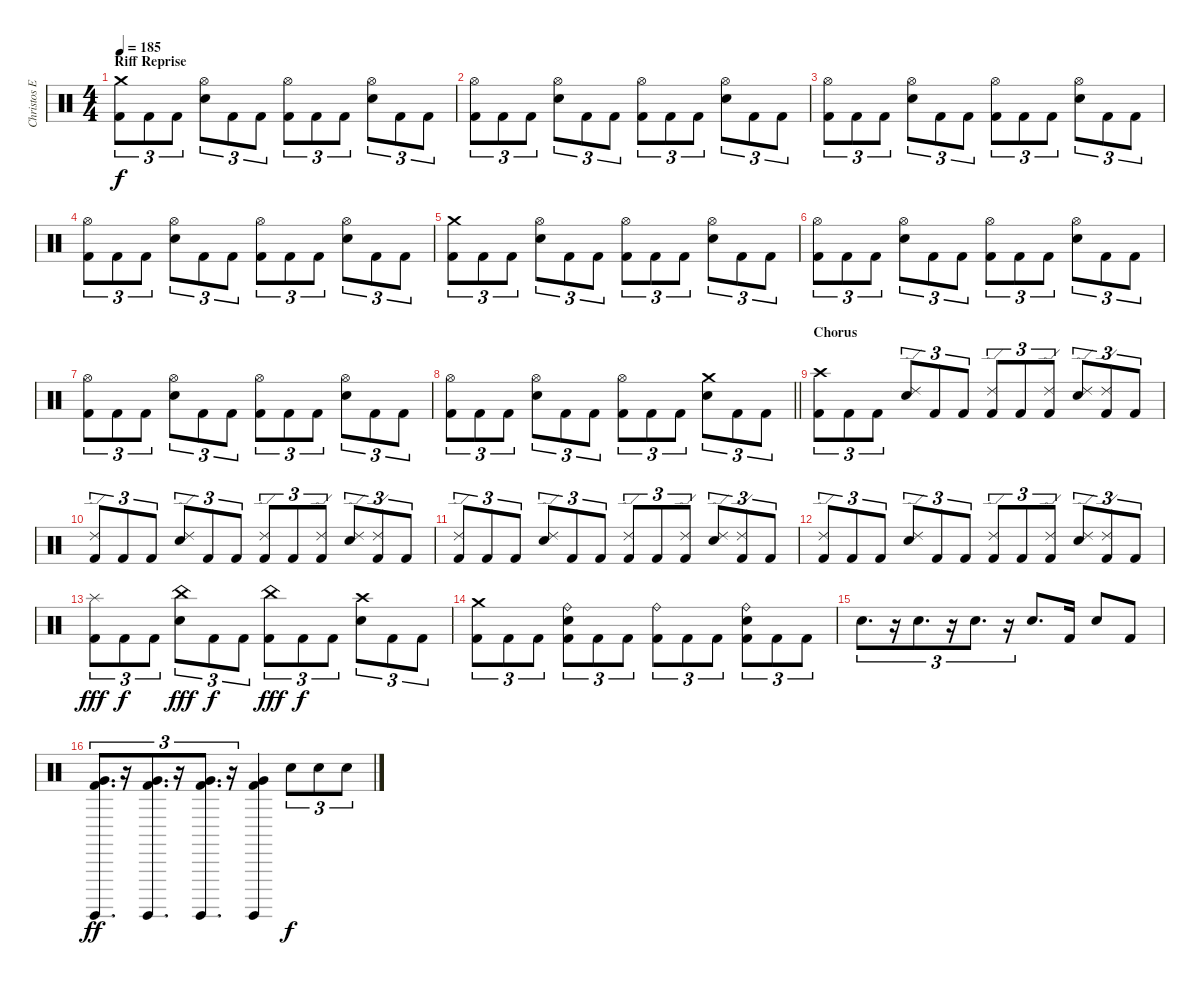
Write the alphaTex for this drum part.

\track ("Christos Ephitimiadis (drums)" "Christos E") {instrument percussion}
\staff {score}
\articulation defaults
\ts (4 4)
\section ("" "Riff Reprise")
\tempo 185
\clef neutral
\ks c
("Crash medium (hit)" "Kick (hit) 2").8{tu (3 2) dy f} "Kick (hit) 2".8{tu (3 2)} "Kick (hit) 2".8{tu (3 2)} ("Hi-Hat (open)" "Snare (hit) 2").8{tu (3 2)} "Kick (hit) 2".8{tu (3 2)} "Kick (hit) 2".8{tu (3 2)} ("Hi-Hat (open)" "Kick (hit) 2").8{tu (3 2)} "Kick (hit) 2".8{tu (3 2)} "Kick (hit) 2".8{tu (3 2)} ("Hi-Hat (open)" "Snare (hit) 2").8{tu (3 2)} "Kick (hit) 2".8{tu (3 2)} "Kick (hit) 2".8{tu (3 2)} |
("Hi-Hat (open)" "Kick (hit) 2").8{tu (3 2)} "Kick (hit) 2".8{tu (3 2)} "Kick (hit) 2".8{tu (3 2)} ("Hi-Hat (open)" "Snare (hit) 2").8{tu (3 2)} "Kick (hit) 2".8{tu (3 2)} "Kick (hit) 2".8{tu (3 2)} ("Hi-Hat (open)" "Kick (hit) 2").8{tu (3 2)} "Kick (hit) 2".8{tu (3 2)} "Kick (hit) 2".8{tu (3 2)} ("Hi-Hat (open)" "Snare (hit) 2").8{tu (3 2)} "Kick (hit) 2".8{tu (3 2)} "Kick (hit) 2".8{tu (3 2)} |
("Hi-Hat (open)" "Kick (hit) 2").8{tu (3 2)} "Kick (hit) 2".8{tu (3 2)} "Kick (hit) 2".8{tu (3 2)} ("Hi-Hat (open)" "Snare (hit) 2").8{tu (3 2)} "Kick (hit) 2".8{tu (3 2)} "Kick (hit) 2".8{tu (3 2)} ("Hi-Hat (open)" "Kick (hit) 2").8{tu (3 2)} "Kick (hit) 2".8{tu (3 2)} "Kick (hit) 2".8{tu (3 2)} ("Hi-Hat (open)" "Snare (hit) 2").8{tu (3 2)} "Kick (hit) 2".8{tu (3 2)} "Kick (hit) 2".8{tu (3 2)} |
("Hi-Hat (open)" "Kick (hit) 2").8{tu (3 2)} "Kick (hit) 2".8{tu (3 2)} "Kick (hit) 2".8{tu (3 2)} ("Hi-Hat (open)" "Snare (hit) 2").8{tu (3 2)} "Kick (hit) 2".8{tu (3 2)} "Kick (hit) 2".8{tu (3 2)} ("Hi-Hat (open)" "Kick (hit) 2").8{tu (3 2)} "Kick (hit) 2".8{tu (3 2)} "Kick (hit) 2".8{tu (3 2)} ("Hi-Hat (open)" "Snare (hit) 2").8{tu (3 2)} "Kick (hit) 2".8{tu (3 2)} "Kick (hit) 2".8{tu (3 2)} |
("Crash medium (hit)" "Kick (hit) 2").8{tu (3 2)} "Kick (hit) 2".8{tu (3 2)} "Kick (hit) 2".8{tu (3 2)} ("Hi-Hat (open)" "Snare (hit) 2").8{tu (3 2)} "Kick (hit) 2".8{tu (3 2)} "Kick (hit) 2".8{tu (3 2)} ("Hi-Hat (open)" "Kick (hit) 2").8{tu (3 2)} "Kick (hit) 2".8{tu (3 2)} "Kick (hit) 2".8{tu (3 2)} ("Hi-Hat (open)" "Snare (hit) 2").8{tu (3 2)} "Kick (hit) 2".8{tu (3 2)} "Kick (hit) 2".8{tu (3 2)} |
("Hi-Hat (open)" "Kick (hit) 2").8{tu (3 2)} "Kick (hit) 2".8{tu (3 2)} "Kick (hit) 2".8{tu (3 2)} ("Hi-Hat (open)" "Snare (hit) 2").8{tu (3 2)} "Kick (hit) 2".8{tu (3 2)} "Kick (hit) 2".8{tu (3 2)} ("Hi-Hat (open)" "Kick (hit) 2").8{tu (3 2)} "Kick (hit) 2".8{tu (3 2)} "Kick (hit) 2".8{tu (3 2)} ("Hi-Hat (open)" "Snare (hit) 2").8{tu (3 2)} "Kick (hit) 2".8{tu (3 2)} "Kick (hit) 2".8{tu (3 2)} |
("Hi-Hat (open)" "Kick (hit) 2").8{tu (3 2)} "Kick (hit) 2".8{tu (3 2)} "Kick (hit) 2".8{tu (3 2)} ("Hi-Hat (open)" "Snare (hit) 2").8{tu (3 2)} "Kick (hit) 2".8{tu (3 2)} "Kick (hit) 2".8{tu (3 2)} ("Hi-Hat (open)" "Kick (hit) 2").8{tu (3 2)} "Kick (hit) 2".8{tu (3 2)} "Kick (hit) 2".8{tu (3 2)} ("Hi-Hat (open)" "Snare (hit) 2").8{tu (3 2)} "Kick (hit) 2".8{tu (3 2)} "Kick (hit) 2".8{tu (3 2)} |
\barLineRight lightlight
("Hi-Hat (open)" "Kick (hit) 2").8{tu (3 2)} "Kick (hit) 2".8{tu (3 2)} "Kick (hit) 2".8{tu (3 2)} ("Hi-Hat (open)" "Snare (hit) 2").8{tu (3 2)} "Kick (hit) 2".8{tu (3 2)} "Kick (hit) 2".8{tu (3 2)} ("Hi-Hat (open)" "Kick (hit) 2").8{tu (3 2)} "Kick (hit) 2".8{tu (3 2)} "Kick (hit) 2".8{tu (3 2)} ("Crash medium (hit)" "Snare (hit) 2").8{tu (3 2)} "Kick (hit) 2".8{tu (3 2)} "Kick (hit) 2".8{tu (3 2)} |
\section ("" "Chorus")
("Crash high (hit)" "Kick (hit) 2").8{tu (3 2)} "Kick (hit) 2".8{tu (3 2)} "Kick (hit) 2".8{tu (3 2)} ("Ride (edge) 2" "Snare (hit) 2").8{tu (3 2)} "Kick (hit) 2".8{tu (3 2)} "Kick (hit) 2".8{tu (3 2)} ("Ride (edge) 2" "Kick (hit) 2").8{tu (3 2)} "Kick (hit) 2".8{tu (3 2)} ("Ride (edge) 2" "Kick (hit) 2").8{tu (3 2)} ("Ride (edge) 2" "Snare (hit) 2").8{tu (3 2)} ("Ride (edge) 2" "Kick (hit) 2").8{tu (3 2)} "Kick (hit) 2".8{tu (3 2)} |
("Ride (edge) 2" "Kick (hit) 2").8{tu (3 2)} "Kick (hit) 2".8{tu (3 2)} "Kick (hit) 2".8{tu (3 2)} ("Ride (edge) 2" "Snare (hit) 2").8{tu (3 2)} "Kick (hit) 2".8{tu (3 2)} "Kick (hit) 2".8{tu (3 2)} ("Ride (edge) 2" "Kick (hit) 2").8{tu (3 2)} "Kick (hit) 2".8{tu (3 2)} ("Ride (edge) 2" "Kick (hit) 2").8{tu (3 2)} ("Ride (edge) 2" "Snare (hit) 2").8{tu (3 2)} ("Ride (edge) 2" "Kick (hit) 2").8{tu (3 2)} "Kick (hit) 2".8{tu (3 2)} |
("Ride (edge) 2" "Kick (hit) 2").8{tu (3 2)} "Kick (hit) 2".8{tu (3 2)} "Kick (hit) 2".8{tu (3 2)} ("Ride (edge) 2" "Snare (hit) 2").8{tu (3 2)} "Kick (hit) 2".8{tu (3 2)} "Kick (hit) 2".8{tu (3 2)} ("Ride (edge) 2" "Kick (hit) 2").8{tu (3 2)} "Kick (hit) 2".8{tu (3 2)} ("Ride (edge) 2" "Kick (hit) 2").8{tu (3 2)} ("Ride (edge) 2" "Snare (hit) 2").8{tu (3 2)} ("Ride (edge) 2" "Kick (hit) 2").8{tu (3 2)} "Kick (hit) 2".8{tu (3 2)} |
("Ride (edge) 2" "Kick (hit) 2").8{tu (3 2)} "Kick (hit) 2".8{tu (3 2)} "Kick (hit) 2".8{tu (3 2)} ("Ride (edge) 2" "Snare (hit) 2").8{tu (3 2)} "Kick (hit) 2".8{tu (3 2)} "Kick (hit) 2".8{tu (3 2)} ("Ride (edge) 2" "Kick (hit) 2").8{tu (3 2)} "Kick (hit) 2".8{tu (3 2)} ("Ride (edge) 2" "Kick (hit) 2").8{tu (3 2)} ("Ride (edge) 2" "Snare (hit) 2").8{tu (3 2)} ("Ride (edge) 2" "Kick (hit) 2").8{tu (3 2)} "Kick (hit) 2".8{tu (3 2)} |
("Splash (hit)" "Kick (hit) 2").8{tu (3 2) dy fff} "Kick (hit) 2".8{tu (3 2) dy f} "Kick (hit) 2".8{tu (3 2)} ("China (hit)" "Snare (hit) 2").8{tu (3 2) dy fff} "Kick (hit) 2".8{tu (3 2) dy f} "Kick (hit) 2".8{tu (3 2)} ("China (hit)" "Kick (hit) 2").8{tu (3 2) dy fff} "Kick (hit) 2".8{tu (3 2) dy f} "Kick (hit) 2".8{tu (3 2)} ("Crash high (hit)" "Snare (hit) 2").8{tu (3 2)} "Kick (hit) 2".8{tu (3 2)} "Kick (hit) 2".8{tu (3 2)} |
("Crash medium (hit)" "Kick (hit) 2").8{tu (3 2)} "Kick (hit) 2".8{tu (3 2)} "Kick (hit) 2".8{tu (3 2)} ("Ride (bell)" "Snare (hit) 2" "Kick (hit) 2").8{tu (3 2)} "Kick (hit) 2".8{tu (3 2)} "Kick (hit) 2".8{tu (3 2)} ("Ride (bell)" "Kick (hit) 2").8{tu (3 2)} "Kick (hit) 2".8{tu (3 2)} "Kick (hit) 2".8{tu (3 2)} ("Ride (bell)" "Snare (hit) 2" "Kick (hit) 2").8{tu (3 2)} "Kick (hit) 2".8{tu (3 2)} "Kick (hit) 2".8{tu (3 2)} |
"Snare (hit) 2".8{d tu (3 2)} r.16{tu (3 2)} "Snare (hit) 2".8{d tu (3 2)} r.16{tu (3 2)} "Snare (hit) 2".8{d tu (3 2)} r.16{tu (3 2)} "Snare (hit) 2".8{d} "Kick (hit) 2".16 "Snare (hit) 2".8 "Kick (hit) 2".8 |
("Surdo (hit)" "Very Low Tom (hit)" "Kick (hit) 2").8{d tu (3 2) dy ff} r.16{tu (3 2)} ("Surdo (hit)" "Very Low Tom (hit)" "Kick (hit) 2").8{d tu (3 2)} r.16{tu (3 2)} ("Surdo (hit)" "Very Low Tom (hit)" "Kick (hit) 2").8{d tu (3 2)} r.16{tu (3 2)} ("Surdo (hit)" "Very Low Tom (hit)" "Kick (hit) 2").4 "Snare (hit) 2".8{tu (3 2) dy f} "Snare (hit) 2".8{tu (3 2)} "Snare (hit) 2".8{tu (3 2)}
